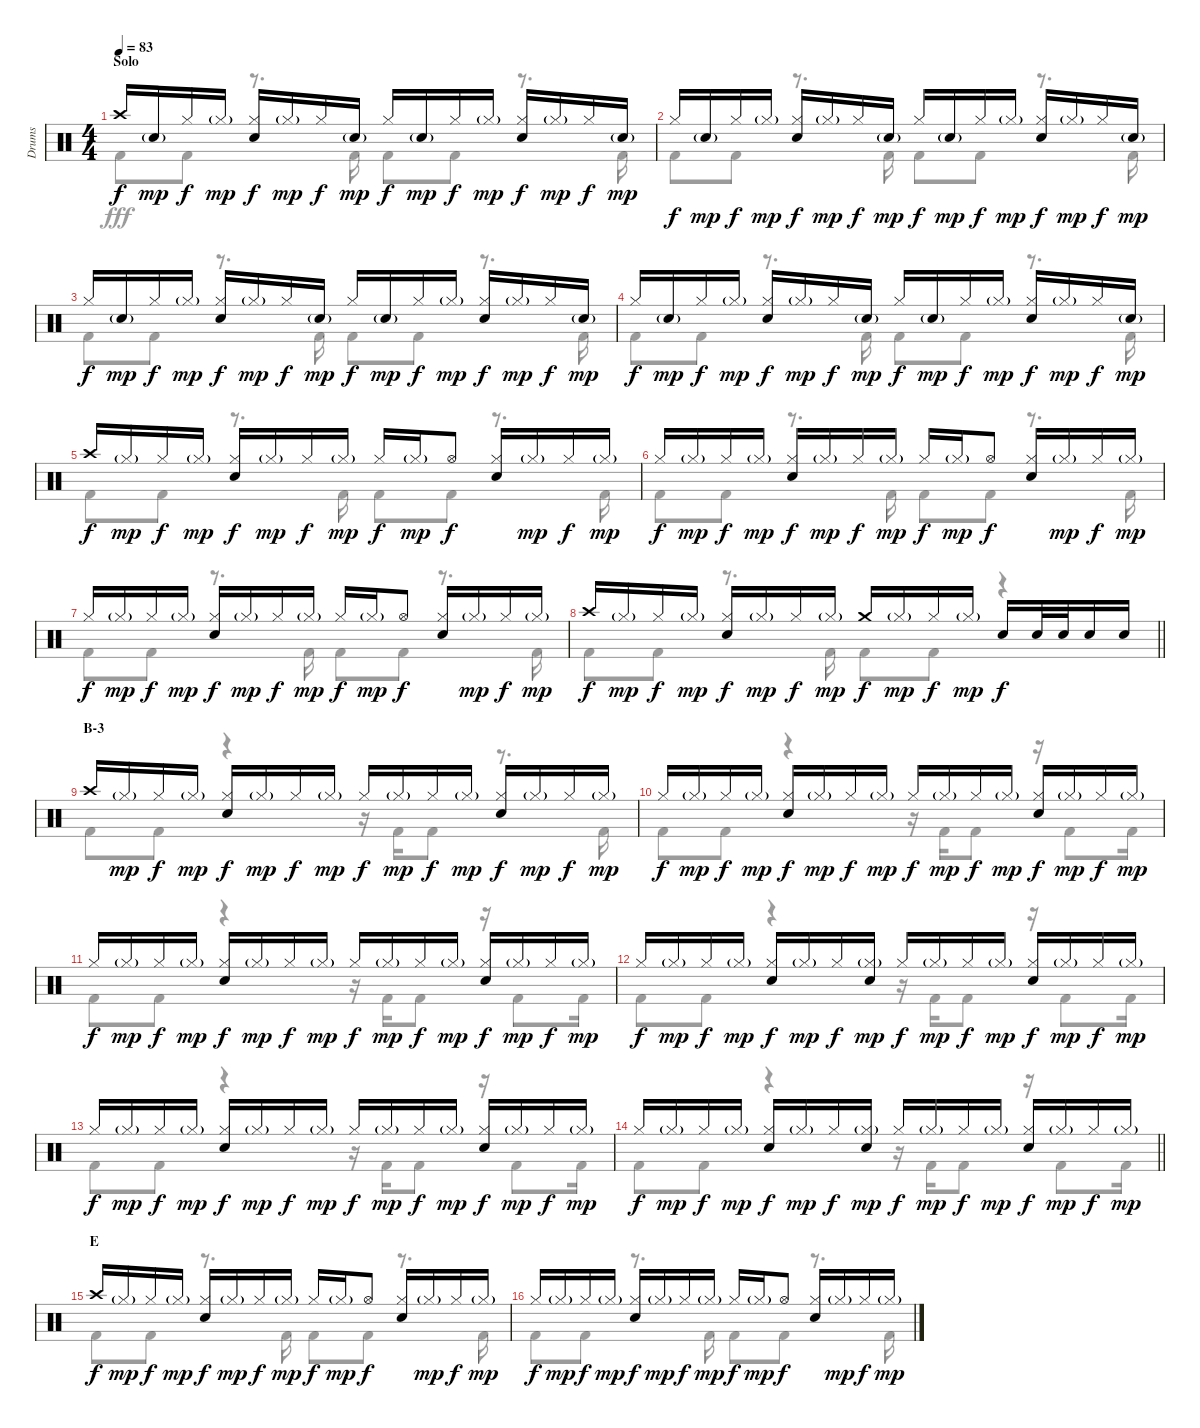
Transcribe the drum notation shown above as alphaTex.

\track ("Drums" "Drums") {instrument percussion}
\staff {score}
\articulation defaults
\voice
\ts (4 4)
\section ("" "Solo")
\tempo 83
\clef neutral
\ks c "Crash high (hit)".16{dy f} "Snare (hit) 2"{g}.16{dy mp} "Hi-Hat (closed)".16{dy f} "Hi-Hat (closed)"{g}.16{dy mp}
("Hi-Hat (closed)" "Snare (hit) 2").16{dy f} "Hi-Hat (closed)"{g}.16{dy mp} "Hi-Hat (closed)".16{dy f} "Snare (hit) 2"{g}.16{dy mp} "Hi-Hat (closed)".16{dy f} "Snare (hit) 2"{g}.16{dy mp} "Hi-Hat (closed)".16{dy f} "Hi-Hat (closed)"{g}.16{dy mp} ("Hi-Hat (closed)" "Snare (hit) 2").16{dy f} "Hi-Hat (closed)"{g}.16{dy mp} "Hi-Hat (closed)".16{dy f} "Snare (hit) 2"{g}.16{dy mp} |
"Hi-Hat (closed)".16{dy f} "Snare (hit) 2"{g}.16{dy mp} "Hi-Hat (closed)".16{dy f} "Hi-Hat (closed)"{g}.16{dy mp} ("Hi-Hat (closed)" "Snare (hit) 2").16{dy f} "Hi-Hat (closed)"{g}.16{dy mp} "Hi-Hat (closed)".16{dy f} "Snare (hit) 2"{g}.16{dy mp} "Hi-Hat (closed)".16{dy f} "Snare (hit) 2"{g}.16{dy mp} "Hi-Hat (closed)".16{dy f} "Hi-Hat (closed)"{g}.16{dy mp} ("Hi-Hat (closed)" "Snare (hit) 2").16{dy f} "Hi-Hat (closed)"{g}.16{dy mp} "Hi-Hat (closed)".16{dy f} "Snare (hit) 2"{g}.16{dy mp} |
"Hi-Hat (closed)".16{dy f} "Snare (hit) 2"{g}.16{dy mp} "Hi-Hat (closed)".16{dy f} "Hi-Hat (closed)"{g}.16{dy mp} ("Hi-Hat (closed)" "Snare (hit) 2").16{dy f} "Hi-Hat (closed)"{g}.16{dy mp} "Hi-Hat (closed)".16{dy f} "Snare (hit) 2"{g}.16{dy mp} "Hi-Hat (closed)".16{dy f} "Snare (hit) 2"{g}.16{dy mp} "Hi-Hat (closed)".16{dy f} "Hi-Hat (closed)"{g}.16{dy mp} ("Hi-Hat (closed)" "Snare (hit) 2").16{dy f} "Hi-Hat (closed)"{g}.16{dy mp} "Hi-Hat (closed)".16{dy f} "Snare (hit) 2"{g}.16{dy mp} |
"Hi-Hat (closed)".16{dy f} "Snare (hit) 2"{g}.16{dy mp} "Hi-Hat (closed)".16{dy f} "Hi-Hat (closed)"{g}.16{dy mp} ("Hi-Hat (closed)" "Snare (hit) 2").16{dy f} "Hi-Hat (closed)"{g}.16{dy mp} "Hi-Hat (closed)".16{dy f} "Snare (hit) 2"{g}.16{dy mp} "Hi-Hat (closed)".16{dy f} "Snare (hit) 2"{g}.16{dy mp} "Hi-Hat (closed)".16{dy f} "Hi-Hat (closed)"{g}.16{dy mp} ("Hi-Hat (closed)" "Snare (hit) 2").16{dy f} "Hi-Hat (closed)"{g}.16{dy mp} "Hi-Hat (closed)".16{dy f} "Snare (hit) 2"{g}.16{dy mp} |
"Crash high (hit)".16{dy f} "Hi-Hat (closed)"{g}.16{dy mp} "Hi-Hat (closed)".16{dy f} "Hi-Hat (closed)"{g}.16{dy mp} ("Hi-Hat (closed)" "Snare (hit) 2").16{dy f} "Hi-Hat (closed)"{g}.16{dy mp} "Hi-Hat (closed)".16{dy f} "Hi-Hat (closed)"{g}.16{dy mp} "Hi-Hat (closed)".16{dy f} "Hi-Hat (closed)"{g}.16{dy mp} "Hi-Hat (open)".8{dy f} ("Hi-Hat (closed)" "Snare (hit) 2").16 "Hi-Hat (closed)"{g}.16{dy mp} "Hi-Hat (closed)".16{dy f} "Hi-Hat (closed)"{g}.16{dy mp} |
"Hi-Hat (closed)".16{dy f} "Hi-Hat (closed)"{g}.16{dy mp} "Hi-Hat (closed)".16{dy f} "Hi-Hat (closed)"{g}.16{dy mp} ("Hi-Hat (closed)" "Snare (hit) 2").16{dy f} "Hi-Hat (closed)"{g}.16{dy mp} "Hi-Hat (closed)".16{dy f} "Hi-Hat (closed)"{g}.16{dy mp} "Hi-Hat (closed)".16{dy f} "Hi-Hat (closed)"{g}.16{dy mp} "Hi-Hat (open)".8{dy f} ("Hi-Hat (closed)" "Snare (hit) 2").16 "Hi-Hat (closed)"{g}.16{dy mp} "Hi-Hat (closed)".16{dy f} "Hi-Hat (closed)"{g}.16{dy mp} |
"Hi-Hat (closed)".16{dy f} "Hi-Hat (closed)"{g}.16{dy mp} "Hi-Hat (closed)".16{dy f} "Hi-Hat (closed)"{g}.16{dy mp} ("Hi-Hat (closed)" "Snare (hit) 2").16{dy f} "Hi-Hat (closed)"{g}.16{dy mp} "Hi-Hat (closed)".16{dy f} "Hi-Hat (closed)"{g}.16{dy mp} "Hi-Hat (closed)".16{dy f} "Hi-Hat (closed)"{g}.16{dy mp} "Hi-Hat (open)".8{dy f} ("Hi-Hat (closed)" "Snare (hit) 2").16 "Hi-Hat (closed)"{g}.16{dy mp} "Hi-Hat (closed)".16{dy f} "Hi-Hat (closed)"{g}.16{dy mp} |
\barLineRight lightlight "Crash high (hit)".16{dy f} "Hi-Hat (closed)"{g}.16{dy mp} "Hi-Hat (closed)".16{dy f} "Hi-Hat (closed)"{g}.16{dy mp}
("Hi-Hat (closed)" "Snare (hit) 2").16{dy f} "Hi-Hat (closed)"{g}.16{dy mp} "Hi-Hat (closed)".16{dy f} "Hi-Hat (closed)"{g}.16{dy mp} "Crash medium (hit)".16{dy f} "Hi-Hat (closed)"{g}.16{dy mp} "Hi-Hat (closed)".16{dy f} "Hi-Hat (closed)"{g}.16{dy mp} "Snare (hit) 2".16{dy f} "Snare (hit) 2".32 "Snare (hit) 2".32 "Snare (hit) 2".16 "Snare (hit) 2".16 |
\section ("" "B-3")
"Crash high (hit)".16 "Hi-Hat (closed)"{g}.16{dy mp} "Hi-Hat (closed)".16{dy f} "Hi-Hat (closed)"{g}.16{dy mp} ("Hi-Hat (closed)" "Snare (hit) 2").16{dy f} "Hi-Hat (closed)"{g}.16{dy mp} "Hi-Hat (closed)".16{dy f} "Hi-Hat (closed)"{g}.16{dy mp} "Hi-Hat (closed)".16{dy f} "Hi-Hat (closed)"{g}.16{dy mp} "Hi-Hat (closed)".16{dy f} "Hi-Hat (closed)"{g}.16{dy mp} ("Hi-Hat (closed)" "Snare (hit) 2").16{dy f} "Hi-Hat (closed)"{g}.16{dy mp} "Hi-Hat (closed)".16{dy f} "Hi-Hat (closed)"{g}.16{dy mp} |
"Hi-Hat (closed)".16{dy f} "Hi-Hat (closed)"{g}.16{dy mp} "Hi-Hat (closed)".16{dy f} "Hi-Hat (closed)"{g}.16{dy mp} ("Hi-Hat (closed)" "Snare (hit) 2").16{dy f} "Hi-Hat (closed)"{g}.16{dy mp} "Hi-Hat (closed)".16{dy f} "Hi-Hat (closed)"{g}.16{dy mp} "Hi-Hat (closed)".16{dy f} "Hi-Hat (closed)"{g}.16{dy mp} "Hi-Hat (closed)".16{dy f} "Hi-Hat (closed)"{g}.16{dy mp} ("Hi-Hat (closed)" "Snare (hit) 2").16{dy f} "Hi-Hat (closed)"{g}.16{dy mp} "Hi-Hat (closed)".16{dy f} "Hi-Hat (closed)"{g}.16{dy mp} |
"Hi-Hat (closed)".16{dy f} "Hi-Hat (closed)"{g}.16{dy mp} "Hi-Hat (closed)".16{dy f} "Hi-Hat (closed)"{g}.16{dy mp} ("Hi-Hat (closed)" "Snare (hit) 2").16{dy f} "Hi-Hat (closed)"{g}.16{dy mp} "Hi-Hat (closed)".16{dy f} "Hi-Hat (closed)"{g}.16{dy mp} "Hi-Hat (closed)".16{dy f} "Hi-Hat (closed)"{g}.16{dy mp} "Hi-Hat (closed)".16{dy f} "Hi-Hat (closed)"{g}.16{dy mp} ("Hi-Hat (closed)" "Snare (hit) 2").16{dy f} "Hi-Hat (closed)"{g}.16{dy mp} "Hi-Hat (closed)".16{dy f} "Hi-Hat (closed)"{g}.16{dy mp} |
"Hi-Hat (closed)".16{dy f} "Hi-Hat (closed)"{g}.16{dy mp} "Hi-Hat (closed)".16{dy f} "Hi-Hat (closed)"{g}.16{dy mp} ("Hi-Hat (closed)" "Snare (hit) 2").16{dy f} "Hi-Hat (closed)"{g}.16{dy mp} "Hi-Hat (closed)".16{dy f} ("Hi-Hat (closed)"{g} "Snare (hit) 2").16{dy mp} "Hi-Hat (closed)".16{dy f} "Hi-Hat (closed)"{g}.16{dy mp} "Hi-Hat (closed)".16{dy f} "Hi-Hat (closed)"{g}.16{dy mp} ("Hi-Hat (closed)" "Snare (hit) 2").16{dy f} "Hi-Hat (closed)"{g}.16{dy mp} "Hi-Hat (closed)".16{dy f} "Hi-Hat (closed)"{g}.16{dy mp} |
"Hi-Hat (closed)".16{dy f} "Hi-Hat (closed)"{g}.16{dy mp} "Hi-Hat (closed)".16{dy f} "Hi-Hat (closed)"{g}.16{dy mp} ("Hi-Hat (closed)" "Snare (hit) 2").16{dy f} "Hi-Hat (closed)"{g}.16{dy mp} "Hi-Hat (closed)".16{dy f} "Hi-Hat (closed)"{g}.16{dy mp} "Hi-Hat (closed)".16{dy f} "Hi-Hat (closed)"{g}.16{dy mp} "Hi-Hat (closed)".16{dy f} "Hi-Hat (closed)"{g}.16{dy mp} ("Hi-Hat (closed)" "Snare (hit) 2").16{dy f} "Hi-Hat (closed)"{g}.16{dy mp} "Hi-Hat (closed)".16{dy f} "Hi-Hat (closed)"{g}.16{dy mp} |
\barLineRight lightlight "Hi-Hat (closed)".16{dy f} "Hi-Hat (closed)"{g}.16{dy mp} "Hi-Hat (closed)".16{dy f} "Hi-Hat (closed)"{g}.16{dy mp}
("Hi-Hat (closed)" "Snare (hit) 2").16{dy f} "Hi-Hat (closed)"{g}.16{dy mp} "Hi-Hat (closed)".16{dy f} ("Hi-Hat (closed)"{g} "Snare (hit) 2").16{dy mp} "Hi-Hat (closed)".16{dy f} "Hi-Hat (closed)"{g}.16{dy mp} "Hi-Hat (closed)".16{dy f} "Hi-Hat (closed)"{g}.16{dy mp} ("Hi-Hat (closed)" "Snare (hit) 2").16{dy f} "Hi-Hat (closed)"{g}.16{dy mp} "Hi-Hat (closed)".16{dy f} "Hi-Hat (closed)"{g}.16{dy mp} |
\section ("" "E")
"Crash high (hit)".16{dy f} "Hi-Hat (closed)"{g}.16{dy mp} "Hi-Hat (closed)".16{dy f} "Hi-Hat (closed)"{g}.16{dy mp} ("Hi-Hat (closed)" "Snare (hit) 2").16{dy f} "Hi-Hat (closed)"{g}.16{dy mp} "Hi-Hat (closed)".16{dy f} "Hi-Hat (closed)"{g}.16{dy mp} "Hi-Hat (closed)".16{dy f} "Hi-Hat (closed)"{g}.16{dy mp} "Hi-Hat (open)".8{dy f} ("Hi-Hat (closed)" "Snare (hit) 2").16 "Hi-Hat (closed)"{g}.16{dy mp} "Hi-Hat (closed)".16{dy f} "Hi-Hat (closed)"{g}.16{dy mp} |
"Hi-Hat (closed)".16{dy f} "Hi-Hat (closed)"{g}.16{dy mp} "Hi-Hat (closed)".16{dy f} "Hi-Hat (closed)"{g}.16{dy mp} ("Hi-Hat (closed)" "Snare (hit) 2").16{dy f} "Hi-Hat (closed)"{g}.16{dy mp} "Hi-Hat (closed)".16{dy f} "Hi-Hat (closed)"{g}.16{dy mp} "Hi-Hat (closed)".16{dy f} "Hi-Hat (closed)"{g}.16{dy mp} "Hi-Hat (open)".8{dy f} ("Hi-Hat (closed)" "Snare (hit) 2").16 "Hi-Hat (closed)"{g}.16{dy mp} "Hi-Hat (closed)".16{dy f} "Hi-Hat (closed)"{g}.16{dy mp}
\voice
\clef neutral
\ottava regular
\simile none
\ks c "Kick (hit) 2".8{dy fff} "Kick (hit) 2".8
r.8{d} "Kick (hit) 2".16 "Kick (hit) 2".8 "Kick (hit) 2".8 r.8{d} "Kick (hit) 2".16 |
"Kick (hit) 2".8 "Kick (hit) 2".8 r.8{d} "Kick (hit) 2".16 "Kick (hit) 2".8 "Kick (hit) 2".8 r.8{d} "Kick (hit) 2".16 |
"Kick (hit) 2".8 "Kick (hit) 2".8 r.8{d} "Kick (hit) 2".16 "Kick (hit) 2".8 "Kick (hit) 2".8 r.8{d} "Kick (hit) 2".16 |
"Kick (hit) 2".8 "Kick (hit) 2".8 r.8{d} "Kick (hit) 2".16 "Kick (hit) 2".8 "Kick (hit) 2".8 r.8{d} "Kick (hit) 2".16 |
"Kick (hit) 2".8 "Kick (hit) 2".8 r.8{d} "Kick (hit) 2".16 "Kick (hit) 2".8 "Kick (hit) 2".8 r.8{d} "Kick (hit) 2".16 |
"Kick (hit) 2".8 "Kick (hit) 2".8 r.8{d} "Kick (hit) 2".16 "Kick (hit) 2".8 "Kick (hit) 2".8 r.8{d} "Kick (hit) 2".16 |
"Kick (hit) 2".8 "Kick (hit) 2".8 r.8{d} "Kick (hit) 2".16 "Kick (hit) 2".8 "Kick (hit) 2".8 r.8{d} "Kick (hit) 2".16 |
\barLineRight lightlight "Kick (hit) 2".8 "Kick (hit) 2".8
r.8{d} "Kick (hit) 2".16 "Kick (hit) 2".8 "Kick (hit) 2".8 r.4 |
"Kick (hit) 2".8 "Kick (hit) 2".8 r.4 r.16 "Kick (hit) 2".16 "Kick (hit) 2".8 r.8{d} "Kick (hit) 2".16 |
"Kick (hit) 2".8 "Kick (hit) 2".8 r.4 r.16 "Kick (hit) 2".16 "Kick (hit) 2".8 r.16 "Kick (hit) 2".8 "Kick (hit) 2".16 |
"Kick (hit) 2".8 "Kick (hit) 2".8 r.4 r.16 "Kick (hit) 2".16 "Kick (hit) 2".8 r.16 "Kick (hit) 2".8 "Kick (hit) 2".16 |
"Kick (hit) 2".8 "Kick (hit) 2".8 r.4 r.16 "Kick (hit) 2".16 "Kick (hit) 2".8 r.16 "Kick (hit) 2".8 "Kick (hit) 2".16 |
"Kick (hit) 2".8 "Kick (hit) 2".8 r.4 r.16 "Kick (hit) 2".16 "Kick (hit) 2".8 r.16 "Kick (hit) 2".8 "Kick (hit) 2".16 |
\barLineRight lightlight "Kick (hit) 2".8 "Kick (hit) 2".8
r.4 r.16 "Kick (hit) 2".16 "Kick (hit) 2".8 r.16 "Kick (hit) 2".8 "Kick (hit) 2".16 |
"Kick (hit) 2".8 "Kick (hit) 2".8 r.8{d} "Kick (hit) 2".16 "Kick (hit) 2".8 "Kick (hit) 2".8 r.8{d} "Kick (hit) 2".16 |
"Kick (hit) 2".8 "Kick (hit) 2".8 r.8{d} "Kick (hit) 2".16 "Kick (hit) 2".8 "Kick (hit) 2".8 r.8{d} "Kick (hit) 2".16
